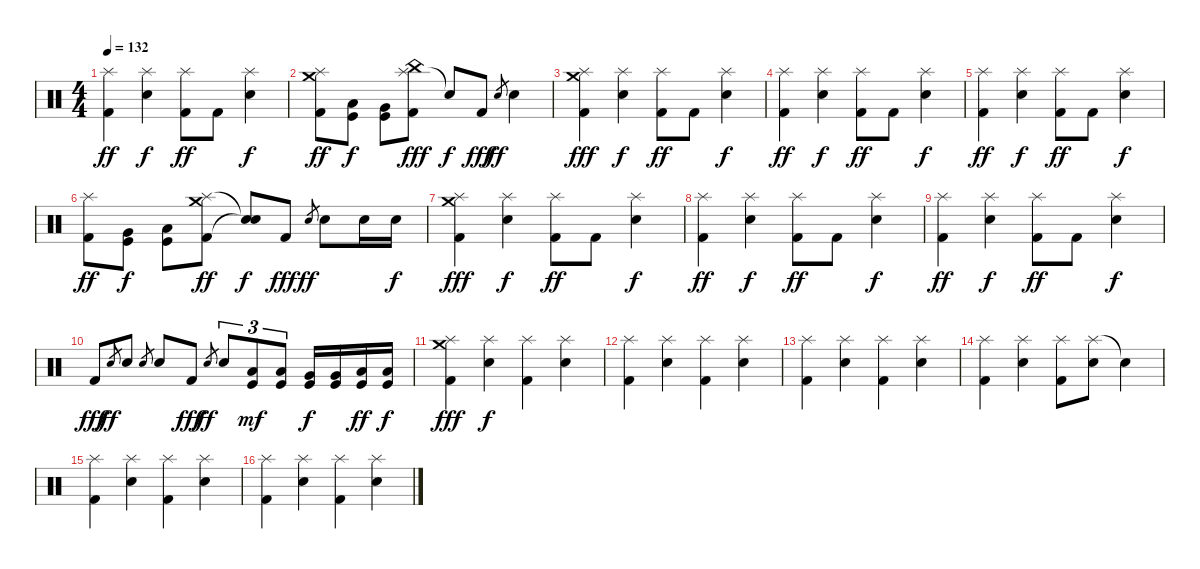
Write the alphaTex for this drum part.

\track "" {instrument percussion}
\staff {score}
\articulation defaults
\ts (4 4)
\tempo 132
\clef neutral
\ks c
("Splash (hit)" "Kick (hit) 2").4{dy ff} ("Splash (hit)" "Electric Snare (hit)").4{dy f} ("Splash (hit)" "Kick (hit) 2").8{dy ff} "Kick (hit) 2".8 ("Splash (hit)" "Electric Snare (hit)").4{dy f} |
("Splash (hit)" "Kick (hit) 2" "Crash medium (hit)").8{dy ff} ("Low Tom (hit)" "Kick (hit)").8{dy f} ("Very Low Tom (hit)" "Kick (hit)").8 ("Splash (hit)" "Kick (hit) 2" "China (hit)").8{dy fff} "Snare (hit)"{t}.8{dy f} "Kick (hit) 2".8{dy fff} "Electric Snare (hit)".8{gr dy ff} "Electric Snare (hit)".4 |
("Splash (hit)" "Kick (hit) 2" "Crash medium (hit)").4{dy fff} ("Splash (hit)" "Electric Snare (hit)").4{dy f} ("Splash (hit)" "Kick (hit) 2").8{dy ff} "Kick (hit) 2".8 ("Splash (hit)" "Electric Snare (hit)").4{dy f} |
("Splash (hit)" "Kick (hit) 2").4{dy ff} ("Splash (hit)" "Electric Snare (hit)").4{dy f} ("Splash (hit)" "Kick (hit) 2").8{dy ff} "Kick (hit) 2".8 ("Splash (hit)" "Electric Snare (hit)").4{dy f} |
("Splash (hit)" "Kick (hit) 2").4{dy ff} ("Splash (hit)" "Electric Snare (hit)").4{dy f} ("Splash (hit)" "Kick (hit) 2").8{dy ff} "Kick (hit) 2".8 ("Splash (hit)" "Electric Snare (hit)").4{dy f} |
("Splash (hit)" "Kick (hit) 2").8{dy ff} ("Very Low Tom (hit)" "Kick (hit)").8{dy f} ("Low Floor Tom (hit)" "Kick (hit)").8 ("Splash (hit)" "Kick (hit) 2" "Crash medium (hit)").8{dy ff} ("Snare (hit)"{t} "Snare (hit)"{t}).8{dy f} "Kick (hit) 2".8{dy fff} "Electric Snare (hit)".8{gr dy ff} "Electric Snare (hit)".8 "Electric Snare (hit)".16 "Electric Snare (hit)".16{dy f} |
("Splash (hit)" "Kick (hit) 2" "Crash medium (hit)").4{dy fff} ("Splash (hit)" "Electric Snare (hit)").4{dy f} ("Splash (hit)" "Kick (hit) 2").8{dy ff} "Kick (hit) 2".8 ("Splash (hit)" "Electric Snare (hit)").4{dy f} |
("Splash (hit)" "Kick (hit) 2").4{dy ff} ("Splash (hit)" "Electric Snare (hit)").4{dy f} ("Splash (hit)" "Kick (hit) 2").8{dy ff} "Kick (hit) 2".8 ("Splash (hit)" "Electric Snare (hit)").4{dy f} |
("Splash (hit)" "Kick (hit) 2").4{dy ff} ("Splash (hit)" "Electric Snare (hit)").4{dy f} ("Splash (hit)" "Kick (hit) 2").8{dy ff} "Kick (hit) 2".8 ("Splash (hit)" "Electric Snare (hit)").4{dy f} |
"Kick (hit) 2".8{dy fff} "Electric Snare (hit)".8{gr dy ff} "Electric Snare (hit)".8 "Electric Snare (hit)".8{gr} "Electric Snare (hit)".8 "Kick (hit) 2".8{dy fff} "Electric Snare (hit)".8{gr dy ff} "Electric Snare (hit)".8{tu (3 2)} ("Low Tom (hit)" "Kick (hit)").8{tu (3 2) dy mf} ("Low Tom (hit)" "Kick (hit)").8{tu (3 2)} ("Very Low Tom (hit)" "Kick (hit)").16{dy f} ("Very Low Tom (hit)" "Kick (hit)").16 ("Low Floor Tom (hit)" "Kick (hit)").16{dy ff} ("Low Floor Tom (hit)" "Kick (hit)").16{dy f} |
("Splash (hit)" "Kick (hit) 2" "Crash medium (hit)").4{dy fff} ("Splash (hit)" "Electric Snare (hit)").4{dy f} ("Splash (hit)" "Kick (hit) 2").4 ("Splash (hit)" "Electric Snare (hit)").4 |
("Splash (hit)" "Kick (hit) 2").4 ("Splash (hit)" "Electric Snare (hit)").4 ("Splash (hit)" "Kick (hit) 2").4 ("Splash (hit)" "Electric Snare (hit)").4 |
("Splash (hit)" "Kick (hit) 2").4 ("Splash (hit)" "Electric Snare (hit)").4 ("Splash (hit)" "Kick (hit) 2").4 ("Splash (hit)" "Electric Snare (hit)").4 |
("Splash (hit)" "Kick (hit) 2").4 ("Splash (hit)" "Electric Snare (hit)").4 ("Splash (hit)" "Kick (hit) 2").8 ("Splash (hit)" "Electric Snare (hit)").8 "Snare (hit)"{t}.4 |
("Splash (hit)" "Kick (hit) 2").4 ("Splash (hit)" "Electric Snare (hit)").4 ("Splash (hit)" "Kick (hit) 2").4 ("Splash (hit)" "Electric Snare (hit)").4 |
("Splash (hit)" "Kick (hit) 2").4 ("Splash (hit)" "Electric Snare (hit)").4 ("Splash (hit)" "Kick (hit) 2").4 ("Splash (hit)" "Electric Snare (hit)").4
